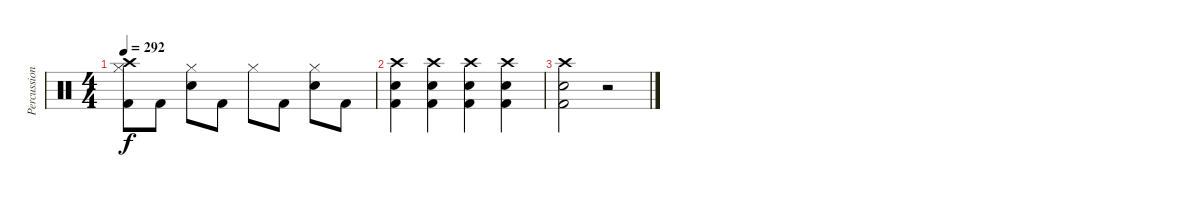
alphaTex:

\track ("Percussion" "Percussion") {instrument percussion}
\staff {score}
\articulation defaults
\ts (4 4)
\tempo 292
\clef neutral
\ks c
("Crash high (hit)" "Hi-Hat (closed)" "Kick (hit) 2").8{dy f} "Kick (hit) 2".8 ("Hi-Hat (closed)" "Electric Snare (hit)").8 "Kick (hit) 2".8 "Hi-Hat (closed)".8 "Kick (hit) 2".8 ("Hi-Hat (closed)" "Electric Snare (hit)").8 "Kick (hit) 2".8 |
("Crash high (hit)" "Electric Snare (hit)" "Kick (hit) 2").4 ("Crash high (hit)" "Electric Snare (hit)" "Kick (hit) 2").4 ("Crash high (hit)" "Electric Snare (hit)" "Kick (hit) 2").4 ("Crash high (hit)" "Electric Snare (hit)" "Kick (hit) 2").4 |
("Crash high (hit)" "Electric Snare (hit)" "Kick (hit) 2").2 r.2
